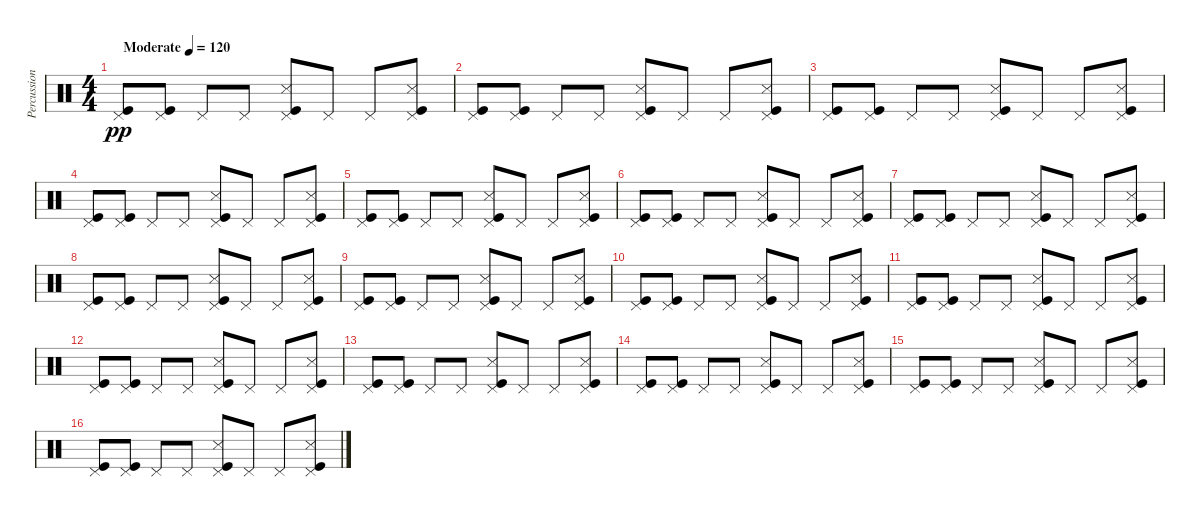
\track ("Percussions" "Percussion") {instrument percussion}
\staff {score}
\articulation defaults
\ts (4 4)
\tempo (120 "Moderate")
\clef neutral
\ks c
("Kick (hit)" "Pedal Hi-Hat (hit)").8{dy pp} ("Kick (hit)" "Pedal Hi-Hat (hit)").8 "Pedal Hi-Hat (hit)".8 "Pedal Hi-Hat (hit)".8 ("Snare (side stick) 3" "Kick (hit)" "Pedal Hi-Hat (hit)").8 "Pedal Hi-Hat (hit)".8 "Pedal Hi-Hat (hit)".8 ("Snare (side stick) 3" "Kick (hit)" "Pedal Hi-Hat (hit)").8 |
("Kick (hit)" "Pedal Hi-Hat (hit)").8 ("Kick (hit)" "Pedal Hi-Hat (hit)").8 "Pedal Hi-Hat (hit)".8 "Pedal Hi-Hat (hit)".8 ("Snare (side stick) 3" "Kick (hit)" "Pedal Hi-Hat (hit)").8 "Pedal Hi-Hat (hit)".8 "Pedal Hi-Hat (hit)".8 ("Snare (side stick) 3" "Kick (hit)" "Pedal Hi-Hat (hit)").8 |
("Kick (hit)" "Pedal Hi-Hat (hit)").8 ("Kick (hit)" "Pedal Hi-Hat (hit)").8 "Pedal Hi-Hat (hit)".8 "Pedal Hi-Hat (hit)".8 ("Snare (side stick) 3" "Kick (hit)" "Pedal Hi-Hat (hit)").8 "Pedal Hi-Hat (hit)".8 "Pedal Hi-Hat (hit)".8 ("Snare (side stick) 3" "Kick (hit)" "Pedal Hi-Hat (hit)").8 |
("Kick (hit)" "Pedal Hi-Hat (hit)").8 ("Kick (hit)" "Pedal Hi-Hat (hit)").8 "Pedal Hi-Hat (hit)".8 "Pedal Hi-Hat (hit)".8 ("Snare (side stick) 3" "Kick (hit)" "Pedal Hi-Hat (hit)").8 "Pedal Hi-Hat (hit)".8 "Pedal Hi-Hat (hit)".8 ("Snare (side stick) 3" "Kick (hit)" "Pedal Hi-Hat (hit)").8 |
("Kick (hit)" "Pedal Hi-Hat (hit)").8 ("Kick (hit)" "Pedal Hi-Hat (hit)").8 "Pedal Hi-Hat (hit)".8 "Pedal Hi-Hat (hit)".8 ("Snare (side stick) 3" "Kick (hit)" "Pedal Hi-Hat (hit)").8 "Pedal Hi-Hat (hit)".8 "Pedal Hi-Hat (hit)".8 ("Snare (side stick) 3" "Kick (hit)" "Pedal Hi-Hat (hit)").8 |
("Kick (hit)" "Pedal Hi-Hat (hit)").8 ("Kick (hit)" "Pedal Hi-Hat (hit)").8 "Pedal Hi-Hat (hit)".8 "Pedal Hi-Hat (hit)".8 ("Snare (side stick) 3" "Kick (hit)" "Pedal Hi-Hat (hit)").8 "Pedal Hi-Hat (hit)".8 "Pedal Hi-Hat (hit)".8 ("Snare (side stick) 3" "Kick (hit)" "Pedal Hi-Hat (hit)").8 |
("Kick (hit)" "Pedal Hi-Hat (hit)").8 ("Kick (hit)" "Pedal Hi-Hat (hit)").8 "Pedal Hi-Hat (hit)".8 "Pedal Hi-Hat (hit)".8 ("Snare (side stick) 3" "Kick (hit)" "Pedal Hi-Hat (hit)").8 "Pedal Hi-Hat (hit)".8 "Pedal Hi-Hat (hit)".8 ("Snare (side stick) 3" "Kick (hit)" "Pedal Hi-Hat (hit)").8 |
("Kick (hit)" "Pedal Hi-Hat (hit)").8 ("Kick (hit)" "Pedal Hi-Hat (hit)").8 "Pedal Hi-Hat (hit)".8 "Pedal Hi-Hat (hit)".8 ("Snare (side stick) 3" "Kick (hit)" "Pedal Hi-Hat (hit)").8 "Pedal Hi-Hat (hit)".8 "Pedal Hi-Hat (hit)".8 ("Snare (side stick) 3" "Kick (hit)" "Pedal Hi-Hat (hit)").8 |
("Kick (hit)" "Pedal Hi-Hat (hit)").8 ("Kick (hit)" "Pedal Hi-Hat (hit)").8 "Pedal Hi-Hat (hit)".8 "Pedal Hi-Hat (hit)".8 ("Snare (side stick) 3" "Kick (hit)" "Pedal Hi-Hat (hit)").8 "Pedal Hi-Hat (hit)".8 "Pedal Hi-Hat (hit)".8 ("Snare (side stick) 3" "Kick (hit)" "Pedal Hi-Hat (hit)").8 |
("Kick (hit)" "Pedal Hi-Hat (hit)").8 ("Kick (hit)" "Pedal Hi-Hat (hit)").8 "Pedal Hi-Hat (hit)".8 "Pedal Hi-Hat (hit)".8 ("Snare (side stick) 3" "Kick (hit)" "Pedal Hi-Hat (hit)").8 "Pedal Hi-Hat (hit)".8 "Pedal Hi-Hat (hit)".8 ("Snare (side stick) 3" "Kick (hit)" "Pedal Hi-Hat (hit)").8 |
("Kick (hit)" "Pedal Hi-Hat (hit)").8 ("Kick (hit)" "Pedal Hi-Hat (hit)").8 "Pedal Hi-Hat (hit)".8 "Pedal Hi-Hat (hit)".8 ("Snare (side stick) 3" "Kick (hit)" "Pedal Hi-Hat (hit)").8 "Pedal Hi-Hat (hit)".8 "Pedal Hi-Hat (hit)".8 ("Snare (side stick) 3" "Kick (hit)" "Pedal Hi-Hat (hit)").8 |
("Kick (hit)" "Pedal Hi-Hat (hit)").8 ("Kick (hit)" "Pedal Hi-Hat (hit)").8 "Pedal Hi-Hat (hit)".8 "Pedal Hi-Hat (hit)".8 ("Snare (side stick) 3" "Kick (hit)" "Pedal Hi-Hat (hit)").8 "Pedal Hi-Hat (hit)".8 "Pedal Hi-Hat (hit)".8 ("Snare (side stick) 3" "Kick (hit)" "Pedal Hi-Hat (hit)").8 |
("Kick (hit)" "Pedal Hi-Hat (hit)").8 ("Kick (hit)" "Pedal Hi-Hat (hit)").8 "Pedal Hi-Hat (hit)".8 "Pedal Hi-Hat (hit)".8 ("Snare (side stick) 3" "Kick (hit)" "Pedal Hi-Hat (hit)").8 "Pedal Hi-Hat (hit)".8 "Pedal Hi-Hat (hit)".8 ("Snare (side stick) 3" "Kick (hit)" "Pedal Hi-Hat (hit)").8 |
("Kick (hit)" "Pedal Hi-Hat (hit)").8 ("Kick (hit)" "Pedal Hi-Hat (hit)").8 "Pedal Hi-Hat (hit)".8 "Pedal Hi-Hat (hit)".8 ("Snare (side stick) 3" "Kick (hit)" "Pedal Hi-Hat (hit)").8 "Pedal Hi-Hat (hit)".8 "Pedal Hi-Hat (hit)".8 ("Snare (side stick) 3" "Kick (hit)" "Pedal Hi-Hat (hit)").8 |
("Kick (hit)" "Pedal Hi-Hat (hit)").8 ("Kick (hit)" "Pedal Hi-Hat (hit)").8 "Pedal Hi-Hat (hit)".8 "Pedal Hi-Hat (hit)".8 ("Snare (side stick) 3" "Kick (hit)" "Pedal Hi-Hat (hit)").8 "Pedal Hi-Hat (hit)".8 "Pedal Hi-Hat (hit)".8 ("Snare (side stick) 3" "Kick (hit)" "Pedal Hi-Hat (hit)").8 |
("Kick (hit)" "Pedal Hi-Hat (hit)").8 ("Kick (hit)" "Pedal Hi-Hat (hit)").8 "Pedal Hi-Hat (hit)".8 "Pedal Hi-Hat (hit)".8 ("Snare (side stick) 3" "Kick (hit)" "Pedal Hi-Hat (hit)").8 "Pedal Hi-Hat (hit)".8 "Pedal Hi-Hat (hit)".8 ("Snare (side stick) 3" "Kick (hit)" "Pedal Hi-Hat (hit)").8
